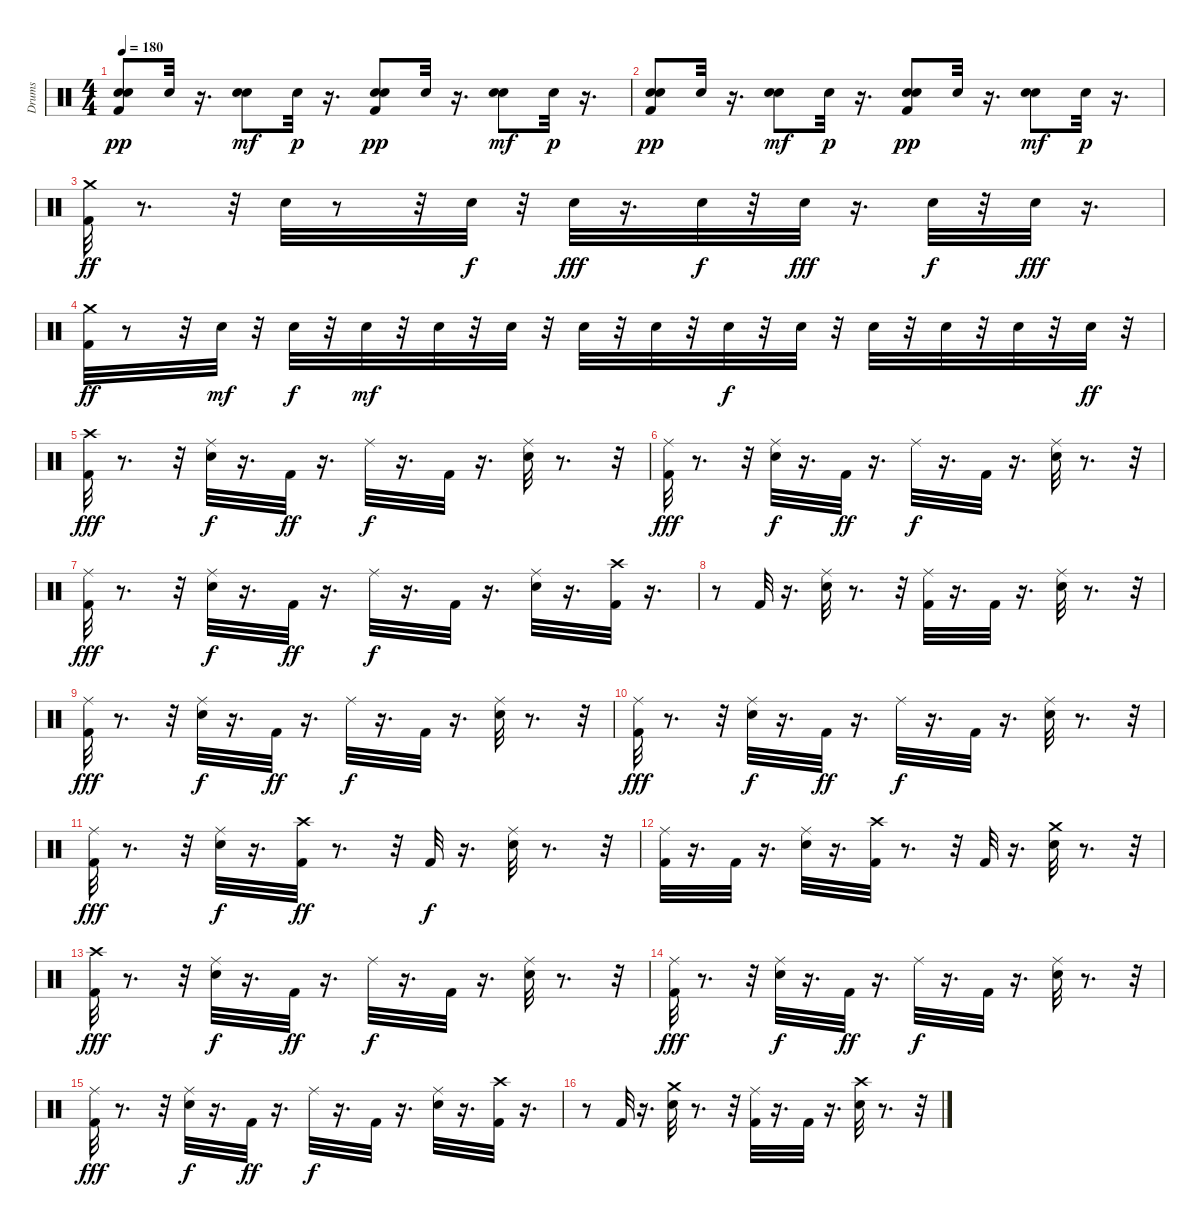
\track ("Drums" "Drums") {instrument percussion}
\staff {score}
\articulation defaults
\ts (4 4)
\tempo 180
\clef neutral
\ks c
("Snare (hit) 2" "Snare (hit) 2" "Kick (hit) 2").8{dy pp} "Snare (hit) 2".32 r.16{d} ("Snare (hit) 2" "Snare (hit) 2").8{dy mf} "Snare (hit) 2".32{dy p} r.16{d} ("Snare (hit) 2" "Snare (hit) 2" "Kick (hit) 2").8{dy pp} "Snare (hit) 2".32 r.16{d} ("Snare (hit) 2" "Snare (hit) 2").8{dy mf} "Snare (hit) 2".32{dy p} r.16{d} |
("Snare (hit) 2" "Snare (hit) 2" "Kick (hit) 2").8{dy pp} "Snare (hit) 2".32 r.16{d} ("Snare (hit) 2" "Snare (hit) 2").8{dy mf} "Snare (hit) 2".32{dy p} r.16{d} ("Snare (hit) 2" "Snare (hit) 2" "Kick (hit) 2").8{dy pp} "Snare (hit) 2".32 r.16{d} ("Snare (hit) 2" "Snare (hit) 2").8{dy mf} "Snare (hit) 2".32{dy p} r.16{d} |
("Crash medium (hit)" "Kick (hit) 2").32{dy ff} r.8{d} r.32 "Snare (hit) 2".32 r.8 r.32 "Snare (hit) 2".32{dy f} r.32 "Snare (hit) 2".32{dy fff} r.16{d} "Snare (hit) 2".32{dy f} r.32 "Snare (hit) 2".32{dy fff} r.16{d} "Snare (hit) 2".32{dy f} r.32 "Snare (hit) 2".32{dy fff} r.16{d} |
("Crash medium (hit)" "Kick (hit) 2").32{dy ff} r.8 r.32 "Snare (hit) 2".32{dy mf} r.32 "Snare (hit) 2".32{dy f} r.32 "Snare (hit) 2".32{dy mf} r.32 "Snare (hit) 2".32 r.32 "Snare (hit) 2".32 r.32 "Snare (hit) 2".32 r.32 "Snare (hit) 2".32 r.32 "Snare (hit) 2".32{dy f} r.32 "Snare (hit) 2".32 r.32 "Snare (hit) 2".32 r.32 "Snare (hit) 2".32 r.32 "Snare (hit) 2".32 r.32 "Snare (hit) 2".32{dy ff} r.32 |
("Kick (hit) 2" "Crash high (hit)").32{dy fff} r.8{d} r.32 ("Ride (middle)" "Snare (hit) 2").32{dy f} r.16{d} "Kick (hit) 2".32{dy ff} r.16{d} "Ride (middle)".32{dy f} r.16{d} "Kick (hit) 2".32 r.16{d} ("Ride (middle)" "Snare (hit) 2").32 r.8{d} r.32 |
("Ride (middle)" "Kick (hit) 2").32{dy fff} r.8{d} r.32 ("Ride (middle)" "Snare (hit) 2").32{dy f} r.16{d} "Kick (hit) 2".32{dy ff} r.16{d} "Ride (middle)".32{dy f} r.16{d} "Kick (hit) 2".32 r.16{d} ("Ride (middle)" "Snare (hit) 2").32 r.8{d} r.32 |
("Ride (middle)" "Kick (hit) 2").32{dy fff} r.8{d} r.32 ("Ride (middle)" "Snare (hit) 2").32{dy f} r.16{d} "Kick (hit) 2".32{dy ff} r.16{d} "Ride (middle)".32{dy f} r.16{d} "Kick (hit) 2".32 r.16{d} ("Ride (middle)" "Snare (hit) 2").32 r.16{d} ("Kick (hit) 2" "Crash high (hit)").32 r.16{d} |
r.8 "Kick (hit) 2".32 r.16{d} ("Ride (middle)" "Snare (hit) 2").32 r.8{d} r.32 ("Ride (middle)" "Kick (hit) 2").32 r.16{d} "Kick (hit) 2".32 r.16{d} ("Ride (middle)" "Snare (hit) 2").32 r.8{d} r.32 |
("Ride (middle)" "Kick (hit) 2").32{dy fff} r.8{d} r.32 ("Ride (middle)" "Snare (hit) 2").32{dy f} r.16{d} "Kick (hit) 2".32{dy ff} r.16{d} "Ride (middle)".32{dy f} r.16{d} "Kick (hit) 2".32 r.16{d} ("Ride (middle)" "Snare (hit) 2").32 r.8{d} r.32 |
("Ride (middle)" "Kick (hit) 2").32{dy fff} r.8{d} r.32 ("Ride (middle)" "Snare (hit) 2").32{dy f} r.16{d} "Kick (hit) 2".32{dy ff} r.16{d} "Ride (middle)".32{dy f} r.16{d} "Kick (hit) 2".32 r.16{d} ("Ride (middle)" "Snare (hit) 2").32 r.8{d} r.32 |
("Ride (middle)" "Kick (hit) 2").32{dy fff} r.8{d} r.32 ("Ride (middle)" "Snare (hit) 2").32{dy f} r.16{d} ("Crash high (hit)" "Kick (hit) 2").32{dy ff} r.8{d} r.32 "Kick (hit) 2".32{dy f} r.16{d} ("Ride (middle)" "Snare (hit) 2").32 r.8{d} r.32 |
("Ride (middle)" "Kick (hit) 2").32 r.16{d} "Kick (hit) 2".32 r.16{d} ("Ride (middle)" "Snare (hit) 2").32 r.16{d} ("Crash high (hit)" "Kick (hit) 2").32 r.8{d} r.32 "Kick (hit) 2".32 r.16{d} ("Crash medium (hit)" "Snare (hit) 2").32 r.8{d} r.32 |
("Kick (hit) 2" "Crash high (hit)").32{dy fff} r.8{d} r.32 ("Ride (middle)" "Snare (hit) 2").32{dy f} r.16{d} "Kick (hit) 2".32{dy ff} r.16{d} "Ride (middle)".32{dy f} r.16{d} "Kick (hit) 2".32 r.16{d} ("Ride (middle)" "Snare (hit) 2").32 r.8{d} r.32 |
("Ride (middle)" "Kick (hit) 2").32{dy fff} r.8{d} r.32 ("Ride (middle)" "Snare (hit) 2").32{dy f} r.16{d} "Kick (hit) 2".32{dy ff} r.16{d} "Ride (middle)".32{dy f} r.16{d} "Kick (hit) 2".32 r.16{d} ("Ride (middle)" "Snare (hit) 2").32 r.8{d} r.32 |
("Ride (middle)" "Kick (hit) 2").32{dy fff} r.8{d} r.32 ("Ride (middle)" "Snare (hit) 2").32{dy f} r.16{d} "Kick (hit) 2".32{dy ff} r.16{d} "Ride (middle)".32{dy f} r.16{d} "Kick (hit) 2".32 r.16{d} ("Ride (middle)" "Snare (hit) 2").32 r.16{d} ("Kick (hit) 2" "Crash high (hit)").32 r.16{d} |
r.8 "Kick (hit) 2".32 r.16{d} ("Crash medium (hit)" "Snare (hit) 2").32 r.8{d} r.32 ("Ride (middle)" "Kick (hit) 2").32 r.16{d} "Kick (hit) 2".32 r.16{d} ("Crash high (hit)" "Snare (hit) 2").32 r.8{d} r.32
